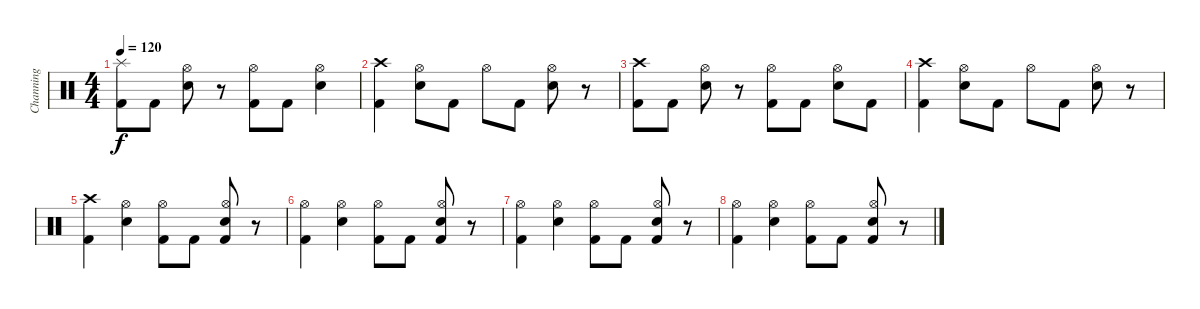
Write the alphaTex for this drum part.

\track ("Channing" "Channing") {instrument percussion}
\staff {score}
\articulation defaults
\ts (4 4)
\tempo 120
\clef neutral
\ks c
("Splash (hit)" "Kick (hit) 2").8{dy f} "Kick (hit) 2".8 ("Hi-Hat (open)" "Snare (hit) 2").8 r.8 ("Hi-Hat (open)" "Kick (hit) 2").8 "Kick (hit) 2".8 ("Hi-Hat (open)" "Snare (hit) 2").4 |
("Crash high (hit)" "Kick (hit) 2").4 ("Hi-Hat (open)" "Snare (hit) 2").8 "Kick (hit) 2".8 "Hi-Hat (open)".8 "Kick (hit) 2".8 ("Hi-Hat (open)" "Snare (hit) 2").8 r.8 |
("Crash high (hit)" "Kick (hit) 2").8 "Kick (hit) 2".8 ("Hi-Hat (open)" "Snare (hit) 2").8 r.8 ("Hi-Hat (open)" "Kick (hit) 2").8 "Kick (hit) 2".8 ("Hi-Hat (open)" "Snare (hit) 2").8 "Kick (hit) 2".8 |
("Crash high (hit)" "Kick (hit) 2").4 ("Hi-Hat (open)" "Snare (hit) 2").8 "Kick (hit) 2".8 "Hi-Hat (open)".8 "Kick (hit) 2".8 ("Hi-Hat (open)" "Snare (hit) 2").8 r.8 |
("Crash high (hit)" "Kick (hit) 2").4 ("Hi-Hat (open)" "Snare (hit) 2").4 ("Hi-Hat (open)" "Kick (hit) 2").8 "Kick (hit) 2".8 ("Hi-Hat (open)" "Snare (hit) 2" "Kick (hit) 2").8 r.8 |
("Hi-Hat (open)" "Kick (hit) 2").4 ("Hi-Hat (open)" "Snare (hit) 2").4 ("Hi-Hat (open)" "Kick (hit) 2").8 "Kick (hit) 2".8 ("Hi-Hat (open)" "Snare (hit) 2" "Kick (hit) 2").8 r.8 |
("Hi-Hat (open)" "Kick (hit) 2").4 ("Hi-Hat (open)" "Snare (hit) 2").4 ("Hi-Hat (open)" "Kick (hit) 2").8 "Kick (hit) 2".8 ("Hi-Hat (open)" "Snare (hit) 2" "Kick (hit) 2").8 r.8 |
("Hi-Hat (open)" "Kick (hit) 2").4 ("Hi-Hat (open)" "Snare (hit) 2").4 ("Hi-Hat (open)" "Kick (hit) 2").8 "Kick (hit) 2".8 ("Hi-Hat (open)" "Snare (hit) 2" "Kick (hit) 2").8 r.8
